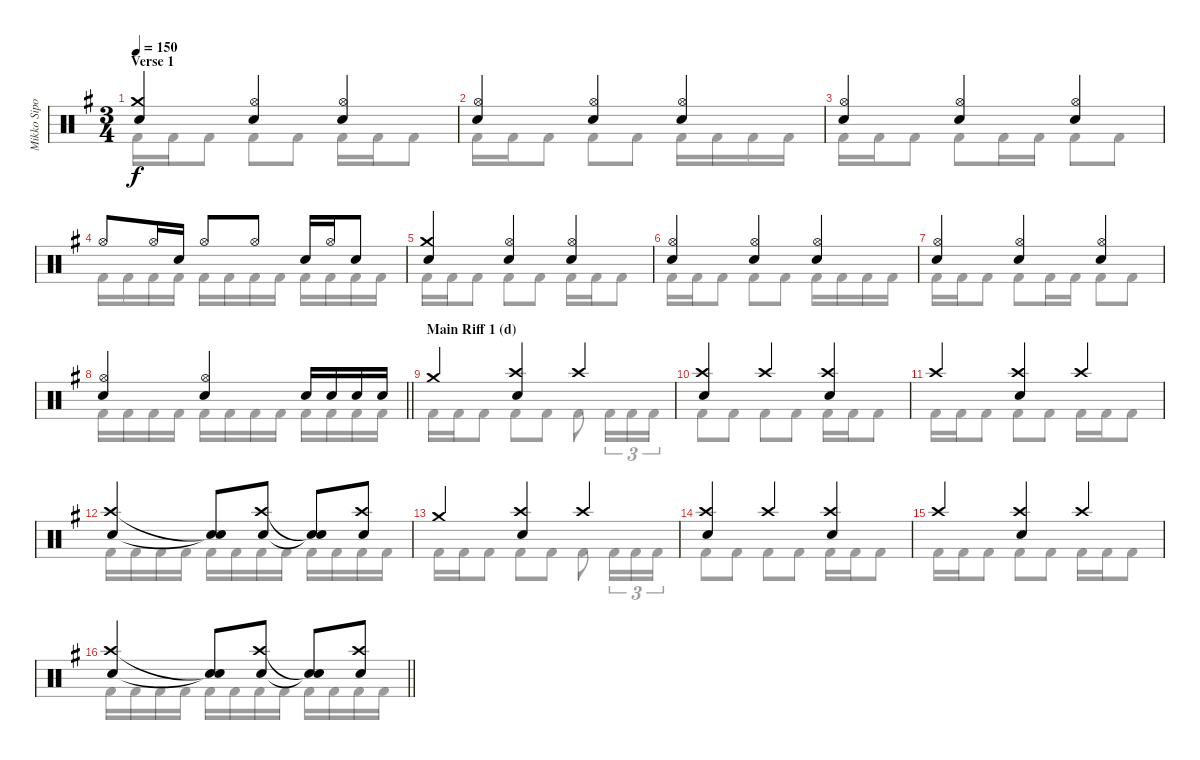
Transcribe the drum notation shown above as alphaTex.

\track ("Mikko Sipola (drums)" "Mikko Sipo") {instrument percussion}
\staff {score}
\articulation defaults
\voice
\ts (3 4)
\section ("" "Verse 1")
\tempo 150
\clef neutral
\ks eminor
("Crash medium (hit)" "Electric Snare (hit)").4{dy f} ("Hi-Hat (open)" "Electric Snare (hit)").4 ("Hi-Hat (open)" "Electric Snare (hit)").4 |
("Hi-Hat (open)" "Electric Snare (hit)").4 ("Hi-Hat (open)" "Electric Snare (hit)").4 ("Hi-Hat (open)" "Electric Snare (hit)").4 |
("Hi-Hat (open)" "Electric Snare (hit)").4 ("Hi-Hat (open)" "Electric Snare (hit)").4 ("Hi-Hat (open)" "Electric Snare (hit)").4 |
"Hi-Hat (open)".8 "Hi-Hat (open)".16 "Electric Snare (hit)".16 "Hi-Hat (open)".8 "Hi-Hat (open)".8 "Electric Snare (hit)".16 "Hi-Hat (open)".16 "Electric Snare (hit)".8 |
("Crash medium (hit)" "Electric Snare (hit)").4 ("Hi-Hat (open)" "Electric Snare (hit)").4 ("Hi-Hat (open)" "Electric Snare (hit)").4 |
("Hi-Hat (open)" "Electric Snare (hit)").4 ("Hi-Hat (open)" "Electric Snare (hit)").4 ("Hi-Hat (open)" "Electric Snare (hit)").4 |
("Hi-Hat (open)" "Electric Snare (hit)").4 ("Hi-Hat (open)" "Electric Snare (hit)").4 ("Hi-Hat (open)" "Electric Snare (hit)").4 |
\barLineRight lightlight
("Hi-Hat (open)" "Electric Snare (hit)").4 ("Hi-Hat (open)" "Electric Snare (hit)").4 "Electric Snare (hit)".16 "Electric Snare (hit)".16 "Electric Snare (hit)".16 "Electric Snare (hit)".16 |
\section ("" "Main Riff 1 (d)")
"Crash medium (hit)".4 ("Crash high (hit)" "Electric Snare (hit)").4 "Crash high (hit)".4 |
("Crash high (hit)" "Electric Snare (hit)").4 "Crash high (hit)".4 ("Crash high (hit)" "Electric Snare (hit)").4 |
"Crash high (hit)".4 ("Crash high (hit)" "Electric Snare (hit)").4 "Crash high (hit)".4 |
("Crash high (hit)" "Electric Snare (hit)").4 ("Snare (hit)"{t} "Snare (hit)"{t}).8 ("Crash high (hit)" "Electric Snare (hit)").8 ("Snare (hit)"{t} "Snare (hit)"{t}).8 ("Crash high (hit)" "Electric Snare (hit)").8 |
"Crash medium (hit)".4 ("Crash high (hit)" "Electric Snare (hit)").4 "Crash high (hit)".4 |
("Crash high (hit)" "Electric Snare (hit)").4 "Crash high (hit)".4 ("Crash high (hit)" "Electric Snare (hit)").4 |
"Crash high (hit)".4 ("Crash high (hit)" "Electric Snare (hit)").4 "Crash high (hit)".4 |
\barLineRight lightlight
("Crash high (hit)" "Electric Snare (hit)").4 ("Snare (hit)"{t} "Snare (hit)"{t}).8 ("Crash high (hit)" "Electric Snare (hit)").8 ("Snare (hit)"{t} "Snare (hit)"{t}).8 ("Crash high (hit)" "Electric Snare (hit)").8
\voice
\clef neutral
\ottava regular
\simile none
\ks eminor "Kick (hit) 2".16{dy f} "Kick (hit) 2".16 "Kick (hit) 2".8 "Kick (hit) 2".8 "Kick (hit) 2".8 "Kick (hit) 2".16 "Kick (hit) 2".16 "Kick (hit) 2".8
|
"Kick (hit) 2".16 "Kick (hit) 2".16 "Kick (hit) 2".8 "Kick (hit) 2".8 "Kick (hit) 2".8 "Kick (hit) 2".16 "Kick (hit) 2".16 "Kick (hit) 2".16 "Kick (hit) 2".16 |
"Kick (hit) 2".16 "Kick (hit) 2".16 "Kick (hit) 2".8 "Kick (hit) 2".8 "Kick (hit) 2".16 "Kick (hit) 2".16 "Kick (hit) 2".8 "Kick (hit) 2".8 |
"Kick (hit) 2".16 "Kick (hit) 2".16 "Kick (hit) 2".16 "Kick (hit) 2".16 "Kick (hit) 2".16 "Kick (hit) 2".16 "Kick (hit) 2".16 "Kick (hit) 2".16 "Kick (hit) 2".16 "Kick (hit) 2".16 "Kick (hit) 2".16 "Kick (hit) 2".16 |
"Kick (hit) 2".16 "Kick (hit) 2".16 "Kick (hit) 2".8 "Kick (hit) 2".8 "Kick (hit) 2".8 "Kick (hit) 2".16 "Kick (hit) 2".16 "Kick (hit) 2".8 |
"Kick (hit) 2".16 "Kick (hit) 2".16 "Kick (hit) 2".8 "Kick (hit) 2".8 "Kick (hit) 2".8 "Kick (hit) 2".16 "Kick (hit) 2".16 "Kick (hit) 2".16 "Kick (hit) 2".16 |
"Kick (hit) 2".16 "Kick (hit) 2".16 "Kick (hit) 2".8 "Kick (hit) 2".8 "Kick (hit) 2".16 "Kick (hit) 2".16 "Kick (hit) 2".8 "Kick (hit) 2".8 |
\barLineRight lightlight "Kick (hit) 2".16 "Kick (hit) 2".16 "Kick (hit) 2".16 "Kick (hit) 2".16 "Kick (hit) 2".16 "Kick (hit) 2".16 "Kick (hit) 2".16 "Kick (hit) 2".16 "Kick (hit) 2".16 "Kick (hit) 2".16 "Kick (hit) 2".16 "Kick (hit) 2".16
|
"Kick (hit) 2".16 "Kick (hit) 2".16 "Kick (hit) 2".8 "Kick (hit) 2".8 "Kick (hit) 2".8 "Kick (hit) 2".8 "Kick (hit) 2".16{tu (3 2)} "Kick (hit) 2".16{tu (3 2)} "Kick (hit) 2".16{tu (3 2)} |
"Kick (hit) 2".8 "Kick (hit) 2".8 "Kick (hit) 2".8 "Kick (hit) 2".8 "Kick (hit) 2".16 "Kick (hit) 2".16 "Kick (hit) 2".8 |
"Kick (hit) 2".16 "Kick (hit) 2".16 "Kick (hit) 2".8 "Kick (hit) 2".8 "Kick (hit) 2".8 "Kick (hit) 2".16 "Kick (hit) 2".16 "Kick (hit) 2".8 |
"Kick (hit) 2".16 "Kick (hit) 2".16 "Kick (hit) 2".16 "Kick (hit) 2".16 "Kick (hit) 2".16 "Kick (hit) 2".16 "Kick (hit) 2".16 "Kick (hit) 2".16 "Kick (hit) 2".16 "Kick (hit) 2".16 "Kick (hit) 2".16 "Kick (hit) 2".16 |
"Kick (hit) 2".16 "Kick (hit) 2".16 "Kick (hit) 2".8 "Kick (hit) 2".8 "Kick (hit) 2".8 "Kick (hit) 2".8 "Kick (hit) 2".16{tu (3 2)} "Kick (hit) 2".16{tu (3 2)} "Kick (hit) 2".16{tu (3 2)} |
"Kick (hit) 2".8 "Kick (hit) 2".8 "Kick (hit) 2".8 "Kick (hit) 2".8 "Kick (hit) 2".16 "Kick (hit) 2".16 "Kick (hit) 2".8 |
"Kick (hit) 2".16 "Kick (hit) 2".16 "Kick (hit) 2".8 "Kick (hit) 2".8 "Kick (hit) 2".8 "Kick (hit) 2".16 "Kick (hit) 2".16 "Kick (hit) 2".8 |
\barLineRight lightlight "Kick (hit) 2".16 "Kick (hit) 2".16 "Kick (hit) 2".16 "Kick (hit) 2".16 "Kick (hit) 2".16 "Kick (hit) 2".16 "Kick (hit) 2".16 "Kick (hit) 2".16 "Kick (hit) 2".16 "Kick (hit) 2".16 "Kick (hit) 2".16 "Kick (hit) 2".16
